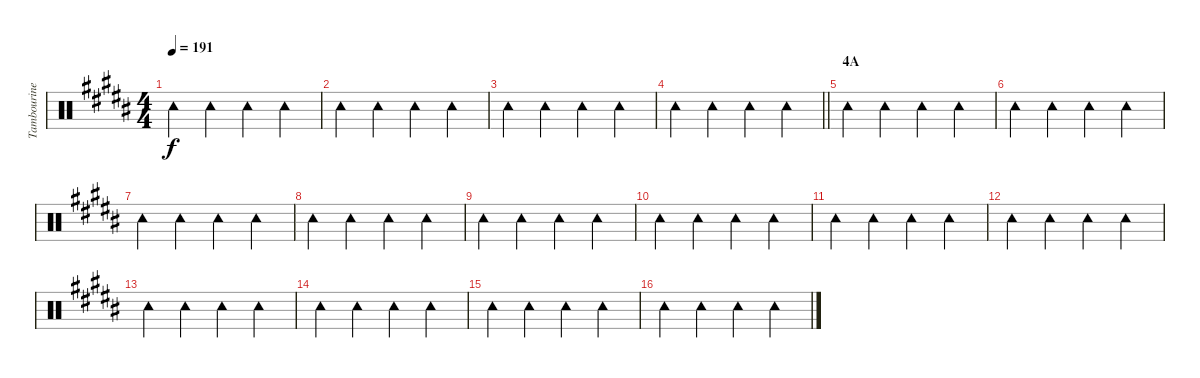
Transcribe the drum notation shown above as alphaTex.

\track ("Tambourine" "Tambourine") {instrument percussion}
\staff {score}
\articulation defaults
\ts (4 4)
\tempo 191
\clef neutral
\ks b "Tambourine (hit)".4{dy f} "Tambourine (hit)".4 "Tambourine (hit)".4 "Tambourine (hit)".4
|
"Tambourine (hit)".4 "Tambourine (hit)".4 "Tambourine (hit)".4 "Tambourine (hit)".4 |
"Tambourine (hit)".4 "Tambourine (hit)".4 "Tambourine (hit)".4 "Tambourine (hit)".4 |
\barLineRight lightlight "Tambourine (hit)".4 "Tambourine (hit)".4 "Tambourine (hit)".4 "Tambourine (hit)".4
|
\section ("" "4A")
"Tambourine (hit)".4 "Tambourine (hit)".4 "Tambourine (hit)".4 "Tambourine (hit)".4 |
"Tambourine (hit)".4 "Tambourine (hit)".4 "Tambourine (hit)".4 "Tambourine (hit)".4 |
"Tambourine (hit)".4 "Tambourine (hit)".4 "Tambourine (hit)".4 "Tambourine (hit)".4 |
"Tambourine (hit)".4 "Tambourine (hit)".4 "Tambourine (hit)".4 "Tambourine (hit)".4 |
"Tambourine (hit)".4 "Tambourine (hit)".4 "Tambourine (hit)".4 "Tambourine (hit)".4 |
"Tambourine (hit)".4 "Tambourine (hit)".4 "Tambourine (hit)".4 "Tambourine (hit)".4 |
"Tambourine (hit)".4 "Tambourine (hit)".4 "Tambourine (hit)".4 "Tambourine (hit)".4 |
"Tambourine (hit)".4 "Tambourine (hit)".4 "Tambourine (hit)".4 "Tambourine (hit)".4 |
"Tambourine (hit)".4 "Tambourine (hit)".4 "Tambourine (hit)".4 "Tambourine (hit)".4 |
"Tambourine (hit)".4 "Tambourine (hit)".4 "Tambourine (hit)".4 "Tambourine (hit)".4 |
"Tambourine (hit)".4 "Tambourine (hit)".4 "Tambourine (hit)".4 "Tambourine (hit)".4 |
"Tambourine (hit)".4 "Tambourine (hit)".4 "Tambourine (hit)".4 "Tambourine (hit)".4
